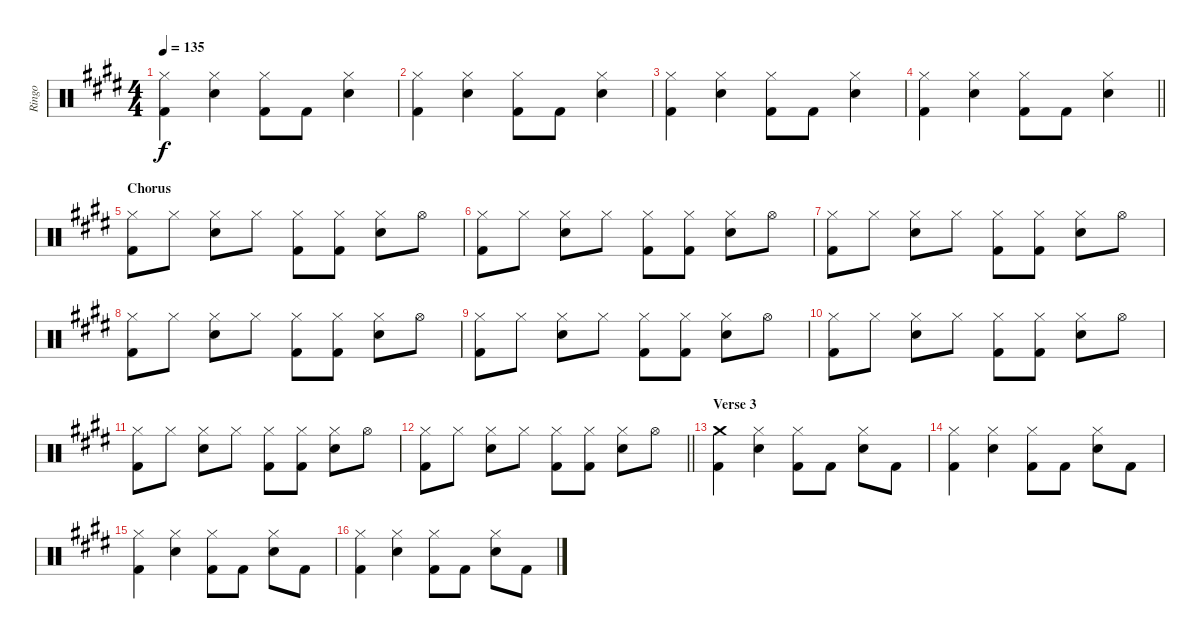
\track ("Ringo" "Ringo") {instrument percussion}
\staff {score}
\articulation defaults
\ts (4 4)
\tempo 135
\clef neutral
\ks e
("Hi-Hat (closed)" "Kick (hit) 2").4{dy f} ("Hi-Hat (closed)" "Snare (hit) 2").4 ("Hi-Hat (closed)" "Kick (hit) 2").8 "Kick (hit) 2".8 ("Hi-Hat (closed)" "Snare (hit) 2").4 |
("Hi-Hat (closed)" "Kick (hit) 2").4 ("Hi-Hat (closed)" "Snare (hit) 2").4 ("Hi-Hat (closed)" "Kick (hit) 2").8 "Kick (hit) 2".8 ("Hi-Hat (closed)" "Snare (hit) 2").4 |
("Hi-Hat (closed)" "Kick (hit) 2").4 ("Hi-Hat (closed)" "Snare (hit) 2").4 ("Hi-Hat (closed)" "Kick (hit) 2").8 "Kick (hit) 2".8 ("Hi-Hat (closed)" "Snare (hit) 2").4 |
\barLineRight lightlight
("Hi-Hat (closed)" "Kick (hit) 2").4 ("Hi-Hat (closed)" "Snare (hit) 2").4 ("Hi-Hat (closed)" "Kick (hit) 2").8 "Kick (hit) 2".8 ("Hi-Hat (closed)" "Snare (hit) 2").4 |
\section ("" "Chorus")
("Hi-Hat (closed)" "Kick (hit) 2").8 "Hi-Hat (closed)".8 ("Hi-Hat (closed)" "Snare (hit) 2").8 "Hi-Hat (closed)".8 ("Hi-Hat (closed)" "Kick (hit) 2").8 ("Hi-Hat (closed)" "Kick (hit) 2").8 ("Hi-Hat (closed)" "Snare (hit) 2").8 "Hi-Hat (open)".8 |
("Hi-Hat (closed)" "Kick (hit) 2").8 "Hi-Hat (closed)".8 ("Hi-Hat (closed)" "Snare (hit) 2").8 "Hi-Hat (closed)".8 ("Hi-Hat (closed)" "Kick (hit) 2").8 ("Hi-Hat (closed)" "Kick (hit) 2").8 ("Hi-Hat (closed)" "Snare (hit) 2").8 "Hi-Hat (open)".8 |
("Hi-Hat (closed)" "Kick (hit) 2").8 "Hi-Hat (closed)".8 ("Hi-Hat (closed)" "Snare (hit) 2").8 "Hi-Hat (closed)".8 ("Hi-Hat (closed)" "Kick (hit) 2").8 ("Hi-Hat (closed)" "Kick (hit) 2").8 ("Hi-Hat (closed)" "Snare (hit) 2").8 "Hi-Hat (open)".8 |
("Hi-Hat (closed)" "Kick (hit) 2").8 "Hi-Hat (closed)".8 ("Hi-Hat (closed)" "Snare (hit) 2").8 "Hi-Hat (closed)".8 ("Hi-Hat (closed)" "Kick (hit) 2").8 ("Hi-Hat (closed)" "Kick (hit) 2").8 ("Hi-Hat (closed)" "Snare (hit) 2").8 "Hi-Hat (open)".8 |
("Hi-Hat (closed)" "Kick (hit) 2").8 "Hi-Hat (closed)".8 ("Hi-Hat (closed)" "Snare (hit) 2").8 "Hi-Hat (closed)".8 ("Hi-Hat (closed)" "Kick (hit) 2").8 ("Hi-Hat (closed)" "Kick (hit) 2").8 ("Hi-Hat (closed)" "Snare (hit) 2").8 "Hi-Hat (open)".8 |
("Hi-Hat (closed)" "Kick (hit) 2").8 "Hi-Hat (closed)".8 ("Hi-Hat (closed)" "Snare (hit) 2").8 "Hi-Hat (closed)".8 ("Hi-Hat (closed)" "Kick (hit) 2").8 ("Hi-Hat (closed)" "Kick (hit) 2").8 ("Hi-Hat (closed)" "Snare (hit) 2").8 "Hi-Hat (open)".8 |
("Hi-Hat (closed)" "Kick (hit) 2").8 "Hi-Hat (closed)".8 ("Hi-Hat (closed)" "Snare (hit) 2").8 "Hi-Hat (closed)".8 ("Hi-Hat (closed)" "Kick (hit) 2").8 ("Hi-Hat (closed)" "Kick (hit) 2").8 ("Hi-Hat (closed)" "Snare (hit) 2").8 "Hi-Hat (open)".8 |
\barLineRight lightlight
("Hi-Hat (closed)" "Kick (hit) 2").8 "Hi-Hat (closed)".8 ("Hi-Hat (closed)" "Snare (hit) 2").8 "Hi-Hat (closed)".8 ("Hi-Hat (closed)" "Kick (hit) 2").8 ("Hi-Hat (closed)" "Kick (hit) 2").8 ("Hi-Hat (closed)" "Snare (hit) 2").8 "Hi-Hat (open)".8 |
\section ("" "Verse 3")
("Crash medium (hit)" "Kick (hit) 2").4 ("Hi-Hat (closed)" "Snare (hit) 2").4 ("Hi-Hat (closed)" "Kick (hit) 2").8 "Kick (hit) 2".8 ("Hi-Hat (closed)" "Snare (hit) 2").8 "Kick (hit) 2".8 |
("Hi-Hat (closed)" "Kick (hit) 2").4 ("Hi-Hat (closed)" "Snare (hit) 2").4 ("Hi-Hat (closed)" "Kick (hit) 2").8 "Kick (hit) 2".8 ("Hi-Hat (closed)" "Snare (hit) 2").8 "Kick (hit) 2".8 |
("Hi-Hat (closed)" "Kick (hit) 2").4 ("Hi-Hat (closed)" "Snare (hit) 2").4 ("Hi-Hat (closed)" "Kick (hit) 2").8 "Kick (hit) 2".8 ("Hi-Hat (closed)" "Snare (hit) 2").8 "Kick (hit) 2".8 |
("Hi-Hat (closed)" "Kick (hit) 2").4 ("Hi-Hat (closed)" "Snare (hit) 2").4 ("Hi-Hat (closed)" "Kick (hit) 2").8 "Kick (hit) 2".8 ("Hi-Hat (closed)" "Snare (hit) 2").8 "Kick (hit) 2".8
